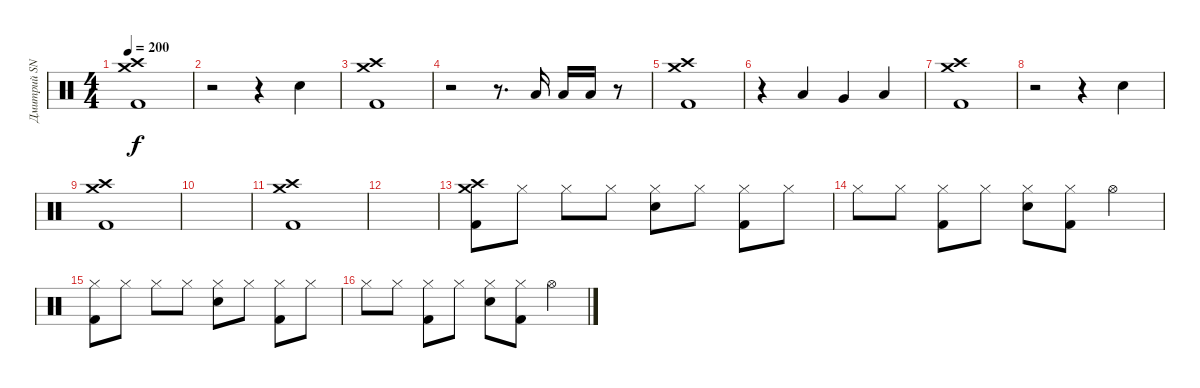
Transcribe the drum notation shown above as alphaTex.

\track ("Дмитрий SNAKE Хакимов" "Дмитрий SN") {instrument percussion}
\staff {score}
\articulation defaults
\ts (4 4)
\tempo 200
\clef neutral
\ks c
("Crash high (hit)" "Crash medium (hit)" "Kick (hit) 2").1{dy f} |
r.2 r.4 "Snare (hit) 2".4 |
("Crash high (hit)" "Crash medium (hit)" "Kick (hit) 2").1 |
r.2 r.8{d} "Low Tom (hit)".16 "Low Tom (hit)".16 "Low Tom (hit)".16 r.8 |
("Crash high (hit)" "Crash medium (hit)" "Kick (hit) 2").1 |
r.4 "Low Tom (hit)".4 "Very Low Tom (hit)".4 "Low Floor Tom (hit)".4 |
("Crash high (hit)" "Crash medium (hit)" "Kick (hit) 2").1 |
r.2 r.4 "Snare (hit) 2".4 |
("Crash high (hit)" "Crash medium (hit)" "Kick (hit) 2").1 |
|
("Crash high (hit)" "Crash medium (hit)" "Kick (hit) 2").1 |
|
("Crash high (hit)" "Crash medium (hit)" "Kick (hit) 2").8 "Hi-Hat (closed)".8 "Hi-Hat (closed)".8 "Hi-Hat (closed)".8 ("Hi-Hat (closed)" "Snare (hit) 2").8 "Hi-Hat (closed)".8 ("Hi-Hat (closed)" "Kick (hit) 2").8 "Hi-Hat (closed)".8 |
"Hi-Hat (closed)".8 "Hi-Hat (closed)".8 ("Hi-Hat (closed)" "Kick (hit) 2").8 "Hi-Hat (closed)".8 ("Hi-Hat (closed)" "Snare (hit) 2").8 ("Hi-Hat (closed)" "Kick (hit) 2").8 "Hi-Hat (open)".4 |
("Hi-Hat (closed)" "Kick (hit) 2").8 "Hi-Hat (closed)".8 "Hi-Hat (closed)".8 "Hi-Hat (closed)".8 ("Hi-Hat (closed)" "Snare (hit) 2").8 "Hi-Hat (closed)".8 ("Hi-Hat (closed)" "Kick (hit) 2").8 "Hi-Hat (closed)".8 |
"Hi-Hat (closed)".8 "Hi-Hat (closed)".8 ("Hi-Hat (closed)" "Kick (hit) 2").8 "Hi-Hat (closed)".8 ("Hi-Hat (closed)" "Snare (hit) 2").8 ("Hi-Hat (closed)" "Kick (hit) 2").8 "Hi-Hat (open)".4
